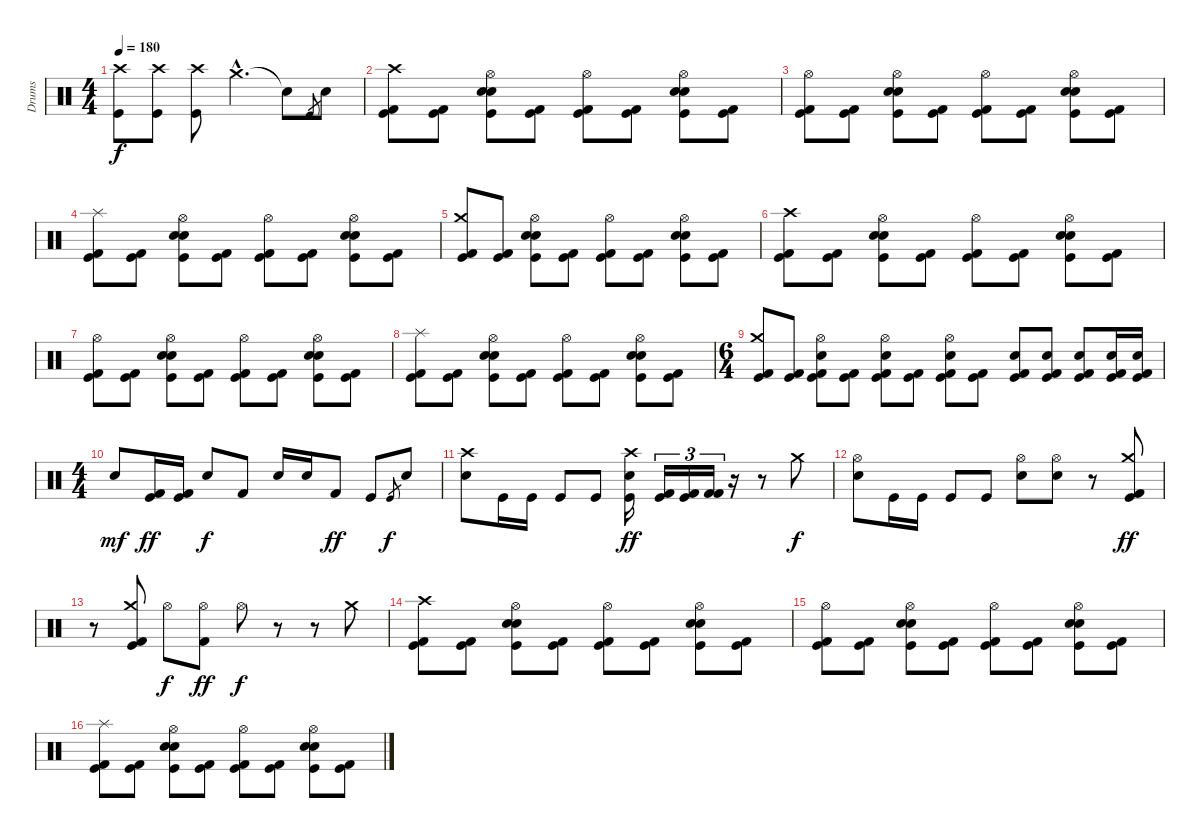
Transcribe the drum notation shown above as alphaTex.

\track ("Drums" "Drums") {instrument percussion}
\staff {score}
\articulation defaults
\ts (4 4)
\tempo 180
\clef neutral
\ks c
("Crash high (hit)" "Kick (hit)").8{dy f} ("Crash high (hit)" "Kick (hit)").8 ("Crash high (hit)" "Kick (hit)").8 "Crash medium (hit)"{tr (57 64) hac}.4{d} "Snare (hit)"{t}.8 "Kick (hit)".8{gr} "Electric Snare (hit)".8 |
("Crash high (hit)" "Kick (hit) 2" "Kick (hit)").8 ("Kick (hit) 2" "Kick (hit)").8 ("Hi-Hat (open)" "Snare (hit) 2" "Electric Snare (hit)" "Kick (hit)").8 ("Kick (hit) 2" "Kick (hit)").8 ("Hi-Hat (open)" "Kick (hit) 2" "Kick (hit)").8 ("Kick (hit) 2" "Kick (hit)").8 ("Hi-Hat (open)" "Snare (hit) 2" "Electric Snare (hit)" "Kick (hit)").8 ("Kick (hit) 2" "Kick (hit)").8 |
("Hi-Hat (open)" "Kick (hit) 2" "Kick (hit)").8 ("Kick (hit) 2" "Kick (hit)").8 ("Hi-Hat (open)" "Snare (hit) 2" "Electric Snare (hit)" "Kick (hit)").8 ("Kick (hit) 2" "Kick (hit)").8 ("Hi-Hat (open)" "Kick (hit) 2" "Kick (hit)").8 ("Kick (hit) 2" "Kick (hit)").8 ("Hi-Hat (open)" "Snare (hit) 2" "Electric Snare (hit)" "Kick (hit)").8 ("Kick (hit) 2" "Kick (hit)").8 |
("Splash (hit)" "Kick (hit) 2" "Kick (hit)").8 ("Kick (hit) 2" "Kick (hit)").8 ("Hi-Hat (open)" "Snare (hit) 2" "Electric Snare (hit)" "Kick (hit)").8 ("Kick (hit) 2" "Kick (hit)").8 ("Hi-Hat (open)" "Kick (hit) 2" "Kick (hit)").8 ("Kick (hit) 2" "Kick (hit)").8 ("Hi-Hat (open)" "Snare (hit) 2" "Electric Snare (hit)" "Kick (hit)").8 ("Kick (hit) 2" "Kick (hit)").8 |
("Crash medium (hit)" "Kick (hit) 2" "Kick (hit)").8 ("Kick (hit) 2" "Kick (hit)").8 ("Hi-Hat (open)" "Snare (hit) 2" "Electric Snare (hit)" "Kick (hit)").8 ("Kick (hit) 2" "Kick (hit)").8 ("Hi-Hat (open)" "Kick (hit) 2" "Kick (hit)").8 ("Kick (hit) 2" "Kick (hit)").8 ("Hi-Hat (open)" "Snare (hit) 2" "Electric Snare (hit)" "Kick (hit)").8 ("Kick (hit) 2" "Kick (hit)").8 |
("Crash high (hit)" "Kick (hit) 2" "Kick (hit)").8 ("Kick (hit) 2" "Kick (hit)").8 ("Hi-Hat (open)" "Snare (hit) 2" "Electric Snare (hit)" "Kick (hit)").8 ("Kick (hit) 2" "Kick (hit)").8 ("Hi-Hat (open)" "Kick (hit) 2" "Kick (hit)").8 ("Kick (hit) 2" "Kick (hit)").8 ("Hi-Hat (open)" "Snare (hit) 2" "Electric Snare (hit)" "Kick (hit)").8 ("Kick (hit) 2" "Kick (hit)").8 |
("Hi-Hat (open)" "Kick (hit) 2" "Kick (hit)").8 ("Kick (hit) 2" "Kick (hit)").8 ("Hi-Hat (open)" "Snare (hit) 2" "Electric Snare (hit)" "Kick (hit)").8 ("Kick (hit) 2" "Kick (hit)").8 ("Hi-Hat (open)" "Kick (hit) 2" "Kick (hit)").8 ("Kick (hit) 2" "Kick (hit)").8 ("Hi-Hat (open)" "Snare (hit) 2" "Electric Snare (hit)" "Kick (hit)").8 ("Kick (hit) 2" "Kick (hit)").8 |
("Splash (hit)" "Kick (hit) 2" "Kick (hit)").8 ("Kick (hit) 2" "Kick (hit)").8 ("Hi-Hat (open)" "Snare (hit) 2" "Electric Snare (hit)" "Kick (hit)").8 ("Kick (hit) 2" "Kick (hit)").8 ("Hi-Hat (open)" "Kick (hit) 2" "Kick (hit)").8 ("Kick (hit) 2" "Kick (hit)").8 ("Hi-Hat (open)" "Snare (hit) 2" "Electric Snare (hit)" "Kick (hit)").8 ("Kick (hit) 2" "Kick (hit)").8 |
\ts (6 4)
("Crash medium (hit)" "Kick (hit) 2" "Kick (hit)").8 ("Kick (hit) 2" "Kick (hit)").8 ("Hi-Hat (open)" "Kick (hit) 2" "Electric Snare (hit)" "Kick (hit)").8 ("Kick (hit) 2" "Kick (hit)").8 ("Hi-Hat (open)" "Kick (hit) 2" "Electric Snare (hit)" "Kick (hit)").8 ("Kick (hit) 2" "Kick (hit)").8 ("Hi-Hat (open)" "Kick (hit) 2" "Electric Snare (hit)" "Kick (hit)").8 ("Kick (hit) 2" "Kick (hit)").8 ("Kick (hit) 2" "Snare (hit) 2" "Kick (hit)").8 ("Kick (hit) 2" "Snare (hit) 2" "Kick (hit)").8 ("Kick (hit) 2" "Snare (hit) 2" "Kick (hit)").8 ("Kick (hit) 2" "Snare (hit) 2" "Kick (hit)").16 ("Kick (hit) 2" "Snare (hit) 2" "Kick (hit)").16 |
\ts (4 4)
"Snare (hit) 2".8{dy mf} ("Kick (hit)" "Kick (hit) 2").16{dy ff} ("Kick (hit)" "Kick (hit) 2").16 "Snare (hit) 2".8{dy f} "Kick (hit) 2".8 "Snare (hit) 2".16 "Snare (hit) 2".16 "Kick (hit) 2".8{dy ff} "Kick (hit)".8 "Kick (hit)".8{gr dy f} "Electric Snare (hit)".8 |
("Crash high (hit)" "Snare (hit) 2").8 "Kick (hit)".16 "Kick (hit)".16 "Kick (hit)".8 "Kick (hit)".8 ("Crash high (hit)" "Snare (hit) 2" "Kick (hit)").16{dy ff} ("Kick (hit) 2" "Kick (hit)").16{tu (3 2)} ("Kick (hit) 2" "Kick (hit)").16{tu (3 2)} ("Kick (hit) 2" "Kick (hit) 2").16{tu (3 2)} r.16 r.8 "Crash medium (hit)".8{dy f} |
("Hi-Hat (open)" "Snare (hit) 2").8 "Kick (hit)".16 "Kick (hit)".16 "Kick (hit)".8 "Kick (hit)".8 ("Hi-Hat (open)" "Snare (hit) 2").8 ("Hi-Hat (open)" "Snare (hit) 2").8 r.8 ("Crash medium (hit)" "Kick (hit) 2" "Kick (hit)").8{dy ff} |
r.8 ("Crash medium (hit)" "Kick (hit) 2" "Kick (hit)").8 "Hi-Hat (open)".8{dy f} ("Hi-Hat (open)" "Kick (hit) 2").8{dy ff} "Hi-Hat (open)".8{dy f} r.8 r.8 "Crash medium (hit)".8 |
("Crash high (hit)" "Kick (hit) 2" "Kick (hit)").8 ("Kick (hit) 2" "Kick (hit)").8 ("Hi-Hat (open)" "Snare (hit) 2" "Electric Snare (hit)" "Kick (hit)").8 ("Kick (hit) 2" "Kick (hit)").8 ("Hi-Hat (open)" "Kick (hit) 2" "Kick (hit)").8 ("Kick (hit) 2" "Kick (hit)").8 ("Hi-Hat (open)" "Snare (hit) 2" "Electric Snare (hit)" "Kick (hit)").8 ("Kick (hit) 2" "Kick (hit)").8 |
("Hi-Hat (open)" "Kick (hit) 2" "Kick (hit)").8 ("Kick (hit) 2" "Kick (hit)").8 ("Hi-Hat (open)" "Snare (hit) 2" "Electric Snare (hit)" "Kick (hit)").8 ("Kick (hit) 2" "Kick (hit)").8 ("Hi-Hat (open)" "Kick (hit) 2" "Kick (hit)").8 ("Kick (hit) 2" "Kick (hit)").8 ("Hi-Hat (open)" "Snare (hit) 2" "Electric Snare (hit)" "Kick (hit)").8 ("Kick (hit) 2" "Kick (hit)").8 |
("Splash (hit)" "Kick (hit) 2" "Kick (hit)").8 ("Kick (hit) 2" "Kick (hit)").8 ("Hi-Hat (open)" "Snare (hit) 2" "Electric Snare (hit)" "Kick (hit)").8 ("Kick (hit) 2" "Kick (hit)").8 ("Hi-Hat (open)" "Kick (hit) 2" "Kick (hit)").8 ("Kick (hit) 2" "Kick (hit)").8 ("Hi-Hat (open)" "Snare (hit) 2" "Electric Snare (hit)" "Kick (hit)").8 ("Kick (hit) 2" "Kick (hit)").8
